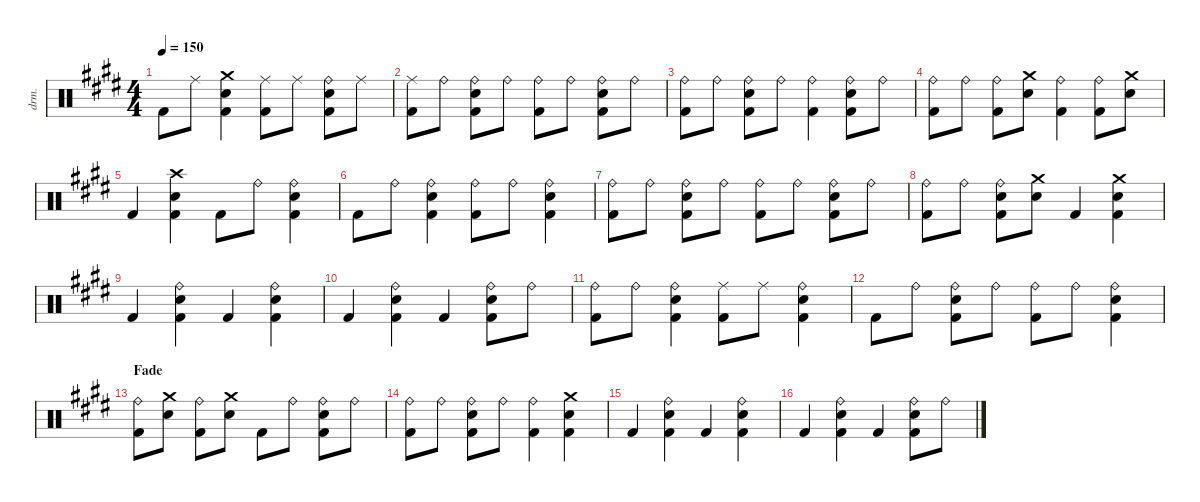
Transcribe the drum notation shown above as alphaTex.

\defaultSystemsLayout 4
\hideDynamics
\bracketExtendMode nobrackets
\otherSystemsTrackNameOrientation horizontal
\track ("Drums - S. Copeland" "drm.") {instrument percussion}
\staff {score}
\articulation defaults
\ts (4 4)
\tempo 150
\clef neutral
\ks c#minor "Kick (hit) 2"{acc forcenatural}.8{dy mf beam Down} "Ride (middle)"{acc forcenatural}.8{beam Down}
("Snare (hit) 2"{acc forcenatural} "Crash medium (hit)"{acc forcenatural} "Kick (hit) 2"{acc forcenatural}).4{beam Down} ("Ride (middle)"{acc forcenatural} "Kick (hit) 2"{acc forcenatural}).8{beam Down} "Ride (middle)"{acc forcenatural}.8{beam Down} ("Ride (bell)"{acc forcenatural} "Snare (hit) 2"{acc forcenatural} "Kick (hit) 2"{acc forcenatural}).8{beam Down} "Ride (middle)"{acc forcenatural}.8{beam Down} |
("Ride (middle)"{acc forcenatural} "Kick (hit) 2"{acc forcenatural}).8{beam Down} "Ride (bell)"{acc forcenatural}.8{beam Down} ("Ride (bell)"{acc forcenatural} "Snare (hit) 2"{acc forcenatural} "Kick (hit) 2"{acc forcenatural}).8{beam Down} "Ride (bell)"{acc forcenatural}.8{beam Down} ("Ride (bell)"{acc forcenatural} "Kick (hit) 2"{acc forcenatural}).8{beam Down} "Ride (bell)"{acc forcenatural}.8{beam Down} ("Ride (bell)"{acc forcenatural} "Snare (hit) 2"{acc forcenatural} "Kick (hit) 2"{acc forcenatural}).8{beam Down} "Ride (bell)"{acc forcenatural}.8{beam Down} |
("Ride (bell)"{acc forcenatural} "Kick (hit) 2"{acc forcenatural}).8{beam Down} "Ride (bell)"{acc forcenatural}.8{beam Down} ("Ride (bell)"{acc forcenatural} "Snare (hit) 2"{acc forcenatural} "Kick (hit) 2"{acc forcenatural}).8{beam Down} "Ride (bell)"{acc forcenatural}.8{beam Down} ("Ride (bell)"{acc forcenatural} "Kick (hit) 2"{acc forcenatural}).4{beam Down} ("Ride (bell)"{acc forcenatural} "Snare (hit) 2"{acc forcenatural} "Kick (hit) 2"{acc forcenatural}).8{beam Down} "Ride (bell)"{acc forcenatural}.8{beam Down} |
("Ride (bell)"{acc forcenatural} "Kick (hit) 2"{acc forcenatural}).8{beam Down} "Ride (bell)"{acc forcenatural}.8{beam Down} ("Ride (bell)"{acc forcenatural} "Kick (hit) 2"{acc forcenatural}).8{beam Down} ("Crash medium (hit)"{acc forcenatural} "Snare (hit) 2"{acc forcenatural}).8{beam Down} ("Ride (bell)"{acc forcenatural} "Kick (hit) 2"{acc forcenatural}).4{beam Down} ("Ride (bell)"{acc forcenatural} "Kick (hit) 2"{acc forcenatural}).8{beam Down} ("Snare (hit) 2"{acc forcenatural} "Crash medium (hit)"{acc forcenatural}).8{beam Down} |
"Kick (hit) 2"{acc forcenatural}.4{beam Up} ("Snare (hit) 2"{acc forcenatural} "Crash high (hit)"{acc forcenatural} "Kick (hit) 2"{acc forcenatural}).4{beam Down} "Kick (hit) 2"{acc forcenatural}.8{beam Down} "Ride (bell)"{acc forcenatural}.8{beam Down} ("Ride (bell)"{acc forcenatural} "Snare (hit) 2"{acc forcenatural} "Kick (hit) 2"{acc forcenatural}).4{beam Down} |
"Kick (hit) 2"{acc forcenatural}.8{beam Down} "Ride (bell)"{acc forcenatural}.8{beam Down} ("Ride (bell)"{acc forcenatural} "Snare (hit) 2"{acc forcenatural} "Kick (hit) 2"{acc forcenatural}).4{beam Down} ("Ride (bell)"{acc forcenatural} "Kick (hit) 2"{acc forcenatural}).8{beam Down} "Ride (bell)"{acc forcenatural}.8{beam Down} ("Ride (bell)"{acc forcenatural} "Kick (hit) 2"{acc forcenatural} "Snare (hit) 2"{acc forcenatural}).4{beam Down} |
("Ride (bell)"{acc forcenatural} "Kick (hit) 2"{acc forcenatural}).8{beam Down} "Ride (bell)"{acc forcenatural}.8{beam Down} ("Ride (bell)"{acc forcenatural} "Snare (hit) 2"{acc forcenatural} "Kick (hit) 2"{acc forcenatural}).8{beam Down} "Ride (bell)"{acc forcenatural}.8{beam Down} ("Ride (bell)"{acc forcenatural} "Kick (hit) 2"{acc forcenatural}).8{beam Down} "Ride (bell)"{acc forcenatural}.8{beam Down} ("Ride (bell)"{acc forcenatural} "Snare (hit) 2"{acc forcenatural} "Kick (hit) 2"{acc forcenatural}).8{beam Down} "Ride (bell)"{acc forcenatural}.8{beam Down} |
("Ride (bell)"{acc forcenatural} "Kick (hit) 2"{acc forcenatural}).8{beam Down} "Ride (bell)"{acc forcenatural}.8{beam Down} ("Ride (bell)"{acc forcenatural} "Snare (hit) 2"{acc forcenatural} "Kick (hit) 2"{acc forcenatural}).8{beam Down} ("Snare (hit) 2"{acc forcenatural} "Crash medium (hit)"{acc forcenatural}).8{beam Down} "Kick (hit) 2"{acc forcenatural}.4{beam Up} ("Crash medium (hit)"{acc forcenatural} "Snare (hit) 2"{acc forcenatural} "Kick (hit) 2"{acc forcenatural}).4{beam Down} |
"Kick (hit) 2"{acc forcenatural}.4{beam Up} ("Kick (hit) 2"{acc forcenatural} "Snare (hit) 2"{acc forcenatural} "Ride (bell)"{acc forcenatural}).4{beam Down} "Kick (hit) 2"{acc forcenatural}.4{beam Up} ("Kick (hit) 2"{acc forcenatural} "Snare (hit) 2"{acc forcenatural} "Ride (bell)"{acc forcenatural}).4{beam Down} |
"Kick (hit) 2"{acc forcenatural}.4{beam Up} ("Kick (hit) 2"{acc forcenatural} "Ride (bell)"{acc forcenatural} "Snare (hit) 2"{acc forcenatural}).4{beam Down} "Kick (hit) 2"{acc forcenatural}.4{beam Up} ("Kick (hit) 2"{acc forcenatural} "Snare (hit) 2"{acc forcenatural} "Ride (bell)"{acc forcenatural}).8{beam Down} "Ride (bell)"{acc forcenatural}.8{beam Down} |
("Ride (bell)"{acc forcenatural} "Kick (hit) 2"{acc forcenatural}).8{beam Down} "Ride (bell)"{acc forcenatural}.8{beam Down} ("Ride (bell)"{acc forcenatural} "Snare (hit) 2"{acc forcenatural} "Kick (hit) 2"{acc forcenatural}).4{beam Down} ("Ride (middle)"{acc forcenatural} "Kick (hit) 2"{acc forcenatural}).8{beam Down} "Ride (middle)"{acc forcenatural}.8{beam Down} ("Ride (bell)"{acc forcenatural} "Snare (hit) 2"{acc forcenatural} "Kick (hit) 2"{acc forcenatural}).4{beam Down} |
"Kick (hit) 2"{acc forcenatural}.8{beam Down} "Ride (bell)"{acc forcenatural}.8{beam Down} ("Ride (bell)"{acc forcenatural} "Snare (hit) 2"{acc forcenatural} "Kick (hit) 2"{acc forcenatural}).8{beam Down} "Ride (bell)"{acc forcenatural}.8{beam Down} ("Ride (bell)"{acc forcenatural} "Kick (hit) 2"{acc forcenatural}).8{beam Down} "Ride (bell)"{acc forcenatural}.8{beam Down} ("Ride (bell)"{acc forcenatural} "Snare (hit) 2"{acc forcenatural} "Kick (hit) 2"{acc forcenatural}).4{beam Down} |
\section ("" "Fade")
("Ride (bell)"{acc forcenatural} "Kick (hit) 2"{acc forcenatural}).8{beam Down} ("Snare (hit) 2"{acc forcenatural} "Crash medium (hit)"{acc forcenatural}).8{beam Down} ("Ride (bell)"{acc forcenatural} "Kick (hit) 2"{acc forcenatural}).8{beam Down} ("Snare (hit) 2"{acc forcenatural} "Crash medium (hit)"{acc forcenatural}).8{beam Down} "Kick (hit) 2"{acc forcenatural}.8{beam Down} "Ride (bell)"{acc forcenatural}.8{beam Down} ("Ride (bell)"{acc forcenatural} "Snare (hit) 2"{acc forcenatural} "Kick (hit) 2"{acc forcenatural}).8{beam Down} "Ride (bell)"{acc forcenatural}.8{beam Down} |
("Ride (bell)"{acc forcenatural} "Kick (hit) 2"{acc forcenatural}).8{beam Down} "Ride (bell)"{acc forcenatural}.8{beam Down} ("Ride (bell)"{acc forcenatural} "Snare (hit) 2"{acc forcenatural} "Kick (hit) 2"{acc forcenatural}).8{beam Down} "Ride (bell)"{acc forcenatural}.8{beam Down} ("Ride (bell)"{acc forcenatural} "Kick (hit) 2"{acc forcenatural}).4{beam Down} ("Snare (hit) 2"{acc forcenatural} "Kick (hit) 2"{acc forcenatural} "Crash medium (hit)"{acc forcenatural}).4{beam Down} |
"Kick (hit) 2"{acc forcenatural}.4{beam Up} ("Kick (hit) 2"{acc forcenatural} "Snare (hit) 2"{acc forcenatural} "Ride (bell)"{acc forcenatural}).4{beam Down} "Kick (hit) 2"{acc forcenatural}.4{beam Up} ("Kick (hit) 2"{acc forcenatural} "Snare (hit) 2"{acc forcenatural} "Ride (bell)"{acc forcenatural}).4{beam Down} |
"Kick (hit) 2"{acc forcenatural}.4{beam Up} ("Kick (hit) 2"{acc forcenatural} "Snare (hit) 2"{acc forcenatural} "Ride (bell)"{acc forcenatural}).4{beam Down} "Kick (hit) 2"{acc forcenatural}.4{beam Up} ("Kick (hit) 2"{acc forcenatural} "Snare (hit) 2"{acc forcenatural} "Ride (bell)"{acc forcenatural}).8{beam Down} "Ride (bell)"{acc forcenatural}.8{beam Down}
